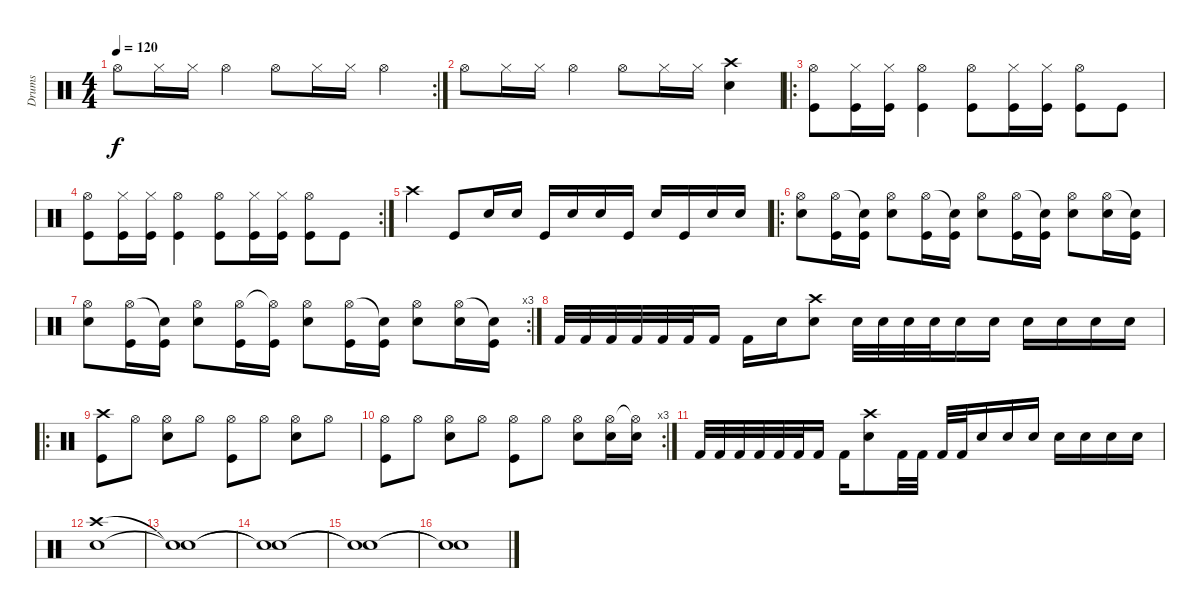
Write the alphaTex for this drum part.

\track ("Drums" "Drums") {instrument percussion}
\staff {score}
\articulation defaults
\rc 2
\ts (4 4)
\tempo 120
\clef neutral
\ks c "Hi-Hat (open)".8{dy f} "Hi-Hat (closed)".16 "Hi-Hat (closed)".16 "Hi-Hat (open)".4 "Hi-Hat (open)".8 "Hi-Hat (closed)".16 "Hi-Hat (closed)".16 "Hi-Hat (open)".4
|
"Hi-Hat (open)".8 "Hi-Hat (closed)".16 "Hi-Hat (closed)".16 "Hi-Hat (open)".4 "Hi-Hat (open)".8 "Hi-Hat (closed)".16 "Hi-Hat (closed)".16 ("Crash high (hit)" "Electric Snare (hit)").4 |
\ro
("Hi-Hat (open)" "Kick (hit)").8 ("Hi-Hat (closed)" "Kick (hit)").16 ("Hi-Hat (closed)" "Kick (hit)").16 ("Hi-Hat (open)" "Kick (hit)").4 ("Hi-Hat (open)" "Kick (hit)").8 ("Hi-Hat (closed)" "Kick (hit)").16 ("Hi-Hat (closed)" "Kick (hit)").16 ("Hi-Hat (open)" "Kick (hit)").8 "Kick (hit)".8 |
\rc 2
("Hi-Hat (open)" "Kick (hit)").8 ("Hi-Hat (closed)" "Kick (hit)").16 ("Hi-Hat (closed)" "Kick (hit)").16 ("Hi-Hat (open)" "Kick (hit)").4 ("Hi-Hat (open)" "Kick (hit)").8 ("Hi-Hat (closed)" "Kick (hit)").16 ("Hi-Hat (closed)" "Kick (hit)").16 ("Hi-Hat (open)" "Kick (hit)").8 "Kick (hit)".8 |
"Crash high (hit)".4 "Kick (hit)".8 "Electric Snare (hit)".16 "Electric Snare (hit)".16 "Kick (hit)".16 "Electric Snare (hit)".16 "Electric Snare (hit)".16 "Kick (hit)".16 "Electric Snare (hit)".16 "Kick (hit)".16 "Electric Snare (hit)".16 "Electric Snare (hit)".16 |
\ro
("Hi-Hat (open)" "Electric Snare (hit)").8 ("Hi-Hat (open)" "Kick (hit)").16 ("Snare (hit)"{t} "Kick (hit)").16 ("Hi-Hat (open)" "Electric Snare (hit)").8 ("Hi-Hat (open)" "Kick (hit)").16 ("Snare (hit)"{t} "Kick (hit)").16 ("Hi-Hat (open)" "Electric Snare (hit)").8 ("Hi-Hat (open)" "Kick (hit)").16 ("Snare (hit)"{t} "Kick (hit)").16 ("Hi-Hat (open)" "Electric Snare (hit)").8 ("Hi-Hat (open)" "Electric Snare (hit)").16 ("Snare (hit)"{t} "Kick (hit)").16 |
\rc 3
("Hi-Hat (open)" "Electric Snare (hit)").8 ("Hi-Hat (open)" "Kick (hit)").16 ("Snare (hit)"{t} "Kick (hit)").16 ("Hi-Hat (open)" "Electric Snare (hit)").8 ("Hi-Hat (open)" "Kick (hit)").16 ("Hi-Hat (open)"{t} "Kick (hit)").16 ("Hi-Hat (open)" "Electric Snare (hit)").8 ("Hi-Hat (open)" "Kick (hit)").16 ("Snare (hit)"{t} "Kick (hit)").16 ("Hi-Hat (open)" "Electric Snare (hit)").8 ("Hi-Hat (open)" "Electric Snare (hit)").16 ("Snare (hit)"{t} "Kick (hit)").16 |
"Kick (hit) 2".32 "Kick (hit) 2".32 "Kick (hit) 2".32 "Kick (hit) 2".32 "Kick (hit) 2".32 "Kick (hit) 2".32 "Kick (hit) 2".16 "Kick (hit) 2".16 "Electric Snare (hit)".16 ("Crash high (hit)" "Electric Snare (hit)").8 "Electric Snare (hit)".32 "Electric Snare (hit)".32 "Electric Snare (hit)".32 "Electric Snare (hit)".32 "Electric Snare (hit)".16 "Electric Snare (hit)".16 "Electric Snare (hit)".16 "Electric Snare (hit)".16 "Electric Snare (hit)".16 "Electric Snare (hit)".16 |
\ro
("Crash high (hit)" "Kick (hit)").8 "Hi-Hat (open)".8 ("Hi-Hat (open)" "Electric Snare (hit)").8 "Hi-Hat (open)".8 ("Hi-Hat (open)" "Kick (hit)").8 "Hi-Hat (open)".8 ("Hi-Hat (open)" "Electric Snare (hit)").8 "Hi-Hat (open)".8 |
\rc 3
("Hi-Hat (open)" "Kick (hit)").8 "Hi-Hat (open)".8 ("Hi-Hat (open)" "Electric Snare (hit)").8 "Hi-Hat (open)".8 ("Hi-Hat (open)" "Kick (hit)").8 "Hi-Hat (open)".8 ("Hi-Hat (open)" "Electric Snare (hit)").8 ("Hi-Hat (open)" "Electric Snare (hit)").16 ("Hi-Hat (open)"{t} "Electric Snare (hit)").16 |
"Kick (hit) 2".32 "Kick (hit) 2".32 "Kick (hit) 2".32 "Kick (hit) 2".32 "Kick (hit) 2".32 "Kick (hit) 2".32 "Kick (hit) 2".16 "Kick (hit) 2".16 ("Crash high (hit)" "Electric Snare (hit)").8 "Kick (hit) 2".32 "Kick (hit) 2".32 "Kick (hit) 2".32 "Kick (hit) 2".32 "Electric Snare (hit)".16 "Electric Snare (hit)".16 "Electric Snare (hit)".16 "Electric Snare (hit)".16 "Electric Snare (hit)".16 "Electric Snare (hit)".16 "Electric Snare (hit)".16 |
("Crash high (hit)" "Electric Snare (hit)").1 |
("Snare (hit)"{t} "Snare (hit)"{t}).1 |
("Snare (hit)"{t} "Snare (hit)"{t}).1 |
("Snare (hit)"{t} "Snare (hit)"{t}).1 |
("Snare (hit)"{t} "Snare (hit)"{t}).1
